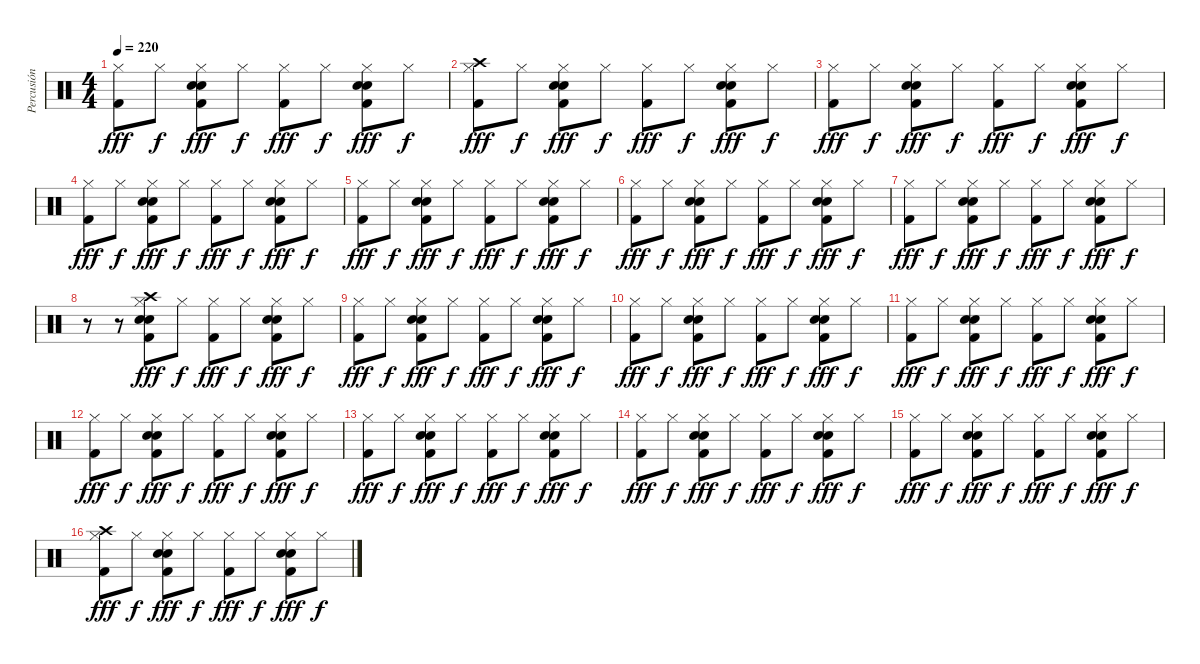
\track ("Percusión" "Percusión") {instrument percussion}
\staff {score}
\articulation defaults
\ts (4 4)
\tempo 220
\clef neutral
\ks c
("Hi-Hat (closed)" "Kick (hit) 2").8{dy fff} "Hi-Hat (closed)".8{dy f} ("Hi-Hat (closed)" "Electric Snare (hit)" "Snare (hit) 2" "Kick (hit) 2").8{dy fff} "Hi-Hat (closed)".8{dy f} ("Hi-Hat (closed)" "Kick (hit) 2").8{dy fff} "Hi-Hat (closed)".8{dy f} ("Hi-Hat (closed)" "Electric Snare (hit)" "Snare (hit) 2" "Kick (hit) 2").8{dy fff} "Hi-Hat (closed)".8{dy f} |
("Crash high (hit)" "Hi-Hat (closed)" "Kick (hit) 2").8{dy fff} "Hi-Hat (closed)".8{dy f} ("Hi-Hat (closed)" "Electric Snare (hit)" "Snare (hit) 2" "Kick (hit) 2").8{dy fff} "Hi-Hat (closed)".8{dy f} ("Hi-Hat (closed)" "Kick (hit) 2").8{dy fff} "Hi-Hat (closed)".8{dy f} ("Hi-Hat (closed)" "Electric Snare (hit)" "Snare (hit) 2" "Kick (hit) 2").8{dy fff} "Hi-Hat (closed)".8{dy f} |
("Hi-Hat (closed)" "Kick (hit) 2").8{dy fff} "Hi-Hat (closed)".8{dy f} ("Hi-Hat (closed)" "Electric Snare (hit)" "Snare (hit) 2" "Kick (hit) 2").8{dy fff} "Hi-Hat (closed)".8{dy f} ("Hi-Hat (closed)" "Kick (hit) 2").8{dy fff} "Hi-Hat (closed)".8{dy f} ("Hi-Hat (closed)" "Electric Snare (hit)" "Snare (hit) 2" "Kick (hit) 2").8{dy fff} "Hi-Hat (closed)".8{dy f} |
("Hi-Hat (closed)" "Kick (hit) 2").8{dy fff} "Hi-Hat (closed)".8{dy f} ("Hi-Hat (closed)" "Electric Snare (hit)" "Snare (hit) 2" "Kick (hit) 2").8{dy fff} "Hi-Hat (closed)".8{dy f} ("Hi-Hat (closed)" "Kick (hit) 2").8{dy fff} "Hi-Hat (closed)".8{dy f} ("Hi-Hat (closed)" "Electric Snare (hit)" "Snare (hit) 2" "Kick (hit) 2").8{dy fff} "Hi-Hat (closed)".8{dy f} |
("Hi-Hat (closed)" "Kick (hit) 2").8{dy fff} "Hi-Hat (closed)".8{dy f} ("Hi-Hat (closed)" "Electric Snare (hit)" "Snare (hit) 2" "Kick (hit) 2").8{dy fff} "Hi-Hat (closed)".8{dy f} ("Hi-Hat (closed)" "Kick (hit) 2").8{dy fff} "Hi-Hat (closed)".8{dy f} ("Hi-Hat (closed)" "Electric Snare (hit)" "Snare (hit) 2" "Kick (hit) 2").8{dy fff} "Hi-Hat (closed)".8{dy f} |
("Hi-Hat (closed)" "Kick (hit) 2").8{dy fff} "Hi-Hat (closed)".8{dy f} ("Hi-Hat (closed)" "Electric Snare (hit)" "Snare (hit) 2" "Kick (hit) 2").8{dy fff} "Hi-Hat (closed)".8{dy f} ("Hi-Hat (closed)" "Kick (hit) 2").8{dy fff} "Hi-Hat (closed)".8{dy f} ("Hi-Hat (closed)" "Electric Snare (hit)" "Snare (hit) 2" "Kick (hit) 2").8{dy fff} "Hi-Hat (closed)".8{dy f} |
("Hi-Hat (closed)" "Kick (hit) 2").8{dy fff} "Hi-Hat (closed)".8{dy f} ("Hi-Hat (closed)" "Electric Snare (hit)" "Snare (hit) 2" "Kick (hit) 2").8{dy fff} "Hi-Hat (closed)".8{dy f} ("Hi-Hat (closed)" "Kick (hit) 2").8{dy fff} "Hi-Hat (closed)".8{dy f} ("Hi-Hat (closed)" "Electric Snare (hit)" "Snare (hit) 2" "Kick (hit) 2").8{dy fff} "Hi-Hat (closed)".8{dy f} |
r.8 r.8 ("Crash high (hit)" "Hi-Hat (closed)" "Electric Snare (hit)" "Snare (hit) 2" "Kick (hit) 2").8{dy fff} "Hi-Hat (closed)".8{dy f} ("Hi-Hat (closed)" "Kick (hit) 2").8{dy fff} "Hi-Hat (closed)".8{dy f} ("Hi-Hat (closed)" "Electric Snare (hit)" "Snare (hit) 2" "Kick (hit) 2").8{dy fff} "Hi-Hat (closed)".8{dy f} |
("Hi-Hat (closed)" "Kick (hit) 2").8{dy fff} "Hi-Hat (closed)".8{dy f} ("Hi-Hat (closed)" "Electric Snare (hit)" "Snare (hit) 2" "Kick (hit) 2").8{dy fff} "Hi-Hat (closed)".8{dy f} ("Hi-Hat (closed)" "Kick (hit) 2").8{dy fff} "Hi-Hat (closed)".8{dy f} ("Hi-Hat (closed)" "Electric Snare (hit)" "Snare (hit) 2" "Kick (hit) 2").8{dy fff} "Hi-Hat (closed)".8{dy f} |
("Hi-Hat (closed)" "Kick (hit) 2").8{dy fff} "Hi-Hat (closed)".8{dy f} ("Hi-Hat (closed)" "Electric Snare (hit)" "Snare (hit) 2" "Kick (hit) 2").8{dy fff} "Hi-Hat (closed)".8{dy f} ("Hi-Hat (closed)" "Kick (hit) 2").8{dy fff} "Hi-Hat (closed)".8{dy f} ("Hi-Hat (closed)" "Electric Snare (hit)" "Snare (hit) 2" "Kick (hit) 2").8{dy fff} "Hi-Hat (closed)".8{dy f} |
("Hi-Hat (closed)" "Kick (hit) 2").8{dy fff} "Hi-Hat (closed)".8{dy f} ("Hi-Hat (closed)" "Electric Snare (hit)" "Snare (hit) 2" "Kick (hit) 2").8{dy fff} "Hi-Hat (closed)".8{dy f} ("Hi-Hat (closed)" "Kick (hit) 2").8{dy fff} "Hi-Hat (closed)".8{dy f} ("Hi-Hat (closed)" "Electric Snare (hit)" "Snare (hit) 2" "Kick (hit) 2").8{dy fff} "Hi-Hat (closed)".8{dy f} |
("Hi-Hat (closed)" "Kick (hit) 2").8{dy fff} "Hi-Hat (closed)".8{dy f} ("Hi-Hat (closed)" "Electric Snare (hit)" "Snare (hit) 2" "Kick (hit) 2").8{dy fff} "Hi-Hat (closed)".8{dy f} ("Hi-Hat (closed)" "Kick (hit) 2").8{dy fff} "Hi-Hat (closed)".8{dy f} ("Hi-Hat (closed)" "Electric Snare (hit)" "Snare (hit) 2" "Kick (hit) 2").8{dy fff} "Hi-Hat (closed)".8{dy f} |
("Hi-Hat (closed)" "Kick (hit) 2").8{dy fff} "Hi-Hat (closed)".8{dy f} ("Hi-Hat (closed)" "Electric Snare (hit)" "Snare (hit) 2" "Kick (hit) 2").8{dy fff} "Hi-Hat (closed)".8{dy f} ("Hi-Hat (closed)" "Kick (hit) 2").8{dy fff} "Hi-Hat (closed)".8{dy f} ("Hi-Hat (closed)" "Electric Snare (hit)" "Snare (hit) 2" "Kick (hit) 2").8{dy fff} "Hi-Hat (closed)".8{dy f} |
("Hi-Hat (closed)" "Kick (hit) 2").8{dy fff} "Hi-Hat (closed)".8{dy f} ("Hi-Hat (closed)" "Electric Snare (hit)" "Snare (hit) 2" "Kick (hit) 2").8{dy fff} "Hi-Hat (closed)".8{dy f} ("Hi-Hat (closed)" "Kick (hit) 2").8{dy fff} "Hi-Hat (closed)".8{dy f} ("Hi-Hat (closed)" "Electric Snare (hit)" "Snare (hit) 2" "Kick (hit) 2").8{dy fff} "Hi-Hat (closed)".8{dy f} |
("Hi-Hat (closed)" "Kick (hit) 2").8{dy fff} "Hi-Hat (closed)".8{dy f} ("Hi-Hat (closed)" "Electric Snare (hit)" "Snare (hit) 2" "Kick (hit) 2").8{dy fff} "Hi-Hat (closed)".8{dy f} ("Hi-Hat (closed)" "Kick (hit) 2").8{dy fff} "Hi-Hat (closed)".8{dy f} ("Hi-Hat (closed)" "Electric Snare (hit)" "Snare (hit) 2" "Kick (hit) 2").8{dy fff} "Hi-Hat (closed)".8{dy f} |
("Crash high (hit)" "Hi-Hat (closed)" "Kick (hit) 2").8{dy fff} "Hi-Hat (closed)".8{dy f} ("Hi-Hat (closed)" "Electric Snare (hit)" "Snare (hit) 2" "Kick (hit) 2").8{dy fff} "Hi-Hat (closed)".8{dy f} ("Hi-Hat (closed)" "Kick (hit) 2").8{dy fff} "Hi-Hat (closed)".8{dy f} ("Hi-Hat (closed)" "Electric Snare (hit)" "Snare (hit) 2" "Kick (hit) 2").8{dy fff} "Hi-Hat (closed)".8{dy f}
